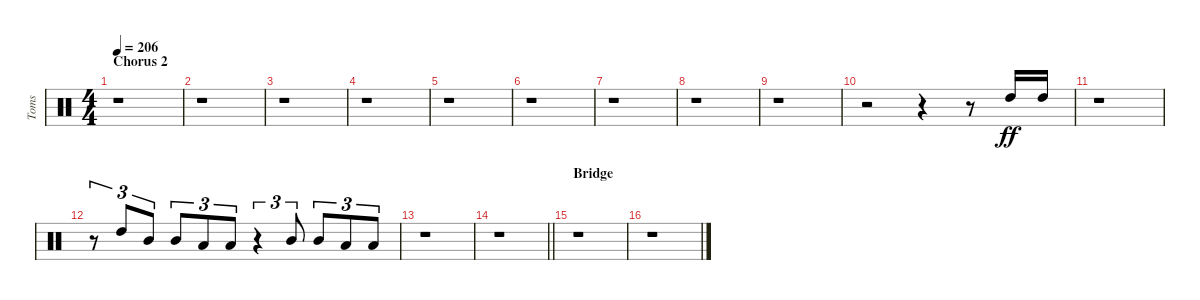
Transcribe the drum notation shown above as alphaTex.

\track ("Toms" "Toms") {instrument percussion}
\staff {score}
\articulation defaults
\ts (4 4)
\section ("" "Chorus 2")
\tempo 206
\clef neutral
\ks c
r.1{dy ff} |
r.1 |
r.1 |
r.1 |
r.1 |
r.1 |
r.1 |
r.1 |
r.1 |
r.2 r.4 r.8{balance 8} "High Tom (hit)".16{beam Up} "High Tom (hit)".16{beam Up} |
r.1 |
r.8{tu (3 2) beam Up} "High Tom (hit)".8{tu (3 2) beam Up} "Mid Tom (hit)".8{tu (3 2) balance 6 beam Up} "Mid Tom (hit)".8{tu (3 2) beam Up} "Low Tom (hit)".8{tu (3 2) balance 4 beam Up} "Low Tom (hit)".8{tu (3 2) beam Up} r.4{tu (3 2) beam Up} "Mid Tom (hit)".8{tu (3 2) balance 6 beam Up} "Mid Tom (hit)".8{tu (3 2) beam Up} "Low Tom (hit)".8{tu (3 2) balance 4 beam Up} "Low Tom (hit)".8{tu (3 2) beam Up} |
r.1 |
\barLineRight lightlight
r.1 |
\section ("" "Bridge")
r.1 |
r.1
